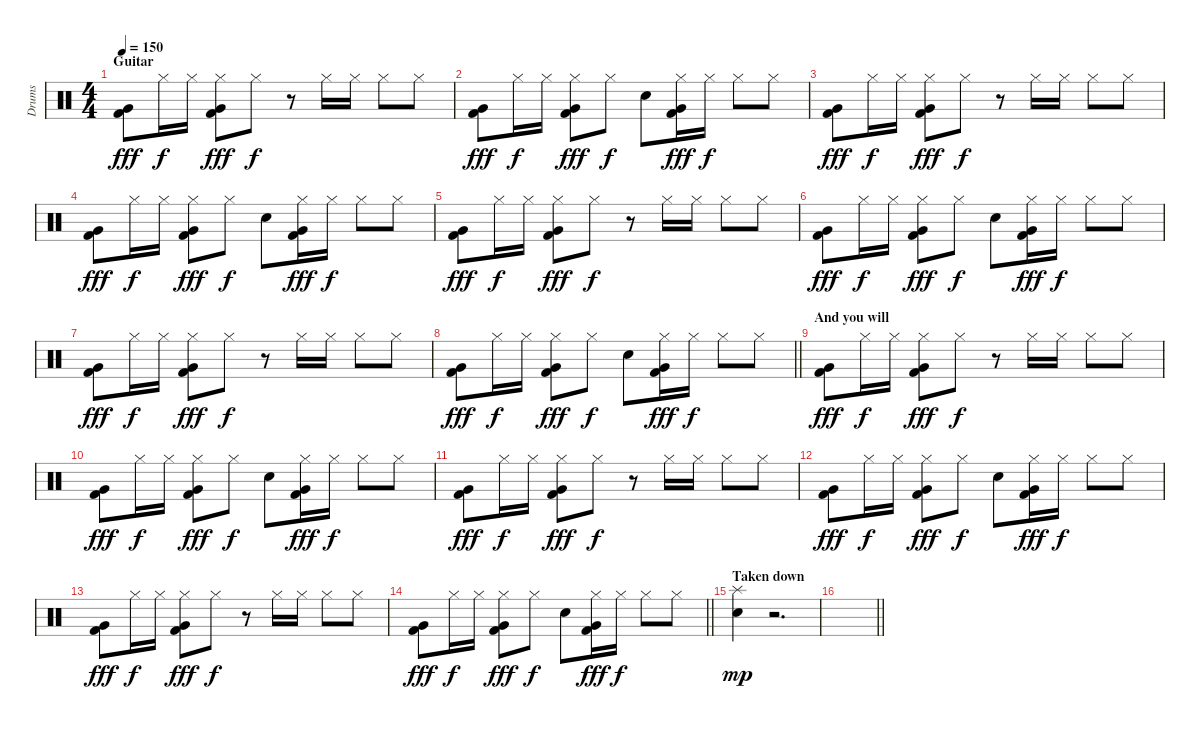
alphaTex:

\track ("Drums" "Drums") {instrument percussion}
\staff {score}
\articulation defaults
\ts (4 4)
\section ("" "Guitar")
\tempo 150
\clef neutral
\ks c
("Very Low Tom (hit)" "Kick (hit) 2").8{dy fff} "Hi-Hat (closed)".16{dy f} "Hi-Hat (closed)".16 ("Hi-Hat (closed)" "Very Low Tom (hit)" "Kick (hit) 2").8{dy fff} "Hi-Hat (closed)".8{dy f} r.8 "Hi-Hat (closed)".16 "Hi-Hat (closed)".16 "Hi-Hat (closed)".8 "Hi-Hat (closed)".8 |
("Very Low Tom (hit)" "Kick (hit) 2").8{dy fff} "Hi-Hat (closed)".16{dy f} "Hi-Hat (closed)".16 ("Hi-Hat (closed)" "Very Low Tom (hit)" "Kick (hit) 2").8{dy fff} "Hi-Hat (closed)".8{dy f} "Electric Snare (hit)".8 ("Hi-Hat (closed)" "Very Low Tom (hit)" "Kick (hit) 2").16{dy fff} "Hi-Hat (closed)".16{dy f} "Hi-Hat (closed)".8 "Hi-Hat (closed)".8 |
("Very Low Tom (hit)" "Kick (hit) 2").8{dy fff} "Hi-Hat (closed)".16{dy f} "Hi-Hat (closed)".16 ("Hi-Hat (closed)" "Very Low Tom (hit)" "Kick (hit) 2").8{dy fff} "Hi-Hat (closed)".8{dy f} r.8 "Hi-Hat (closed)".16 "Hi-Hat (closed)".16 "Hi-Hat (closed)".8 "Hi-Hat (closed)".8 |
("Very Low Tom (hit)" "Kick (hit) 2").8{dy fff} "Hi-Hat (closed)".16{dy f} "Hi-Hat (closed)".16 ("Hi-Hat (closed)" "Very Low Tom (hit)" "Kick (hit) 2").8{dy fff} "Hi-Hat (closed)".8{dy f} "Electric Snare (hit)".8 ("Hi-Hat (closed)" "Very Low Tom (hit)" "Kick (hit) 2").16{dy fff} "Hi-Hat (closed)".16{dy f} "Hi-Hat (closed)".8 "Hi-Hat (closed)".8 |
("Very Low Tom (hit)" "Kick (hit) 2").8{dy fff} "Hi-Hat (closed)".16{dy f} "Hi-Hat (closed)".16 ("Hi-Hat (closed)" "Very Low Tom (hit)" "Kick (hit) 2").8{dy fff} "Hi-Hat (closed)".8{dy f} r.8 "Hi-Hat (closed)".16 "Hi-Hat (closed)".16 "Hi-Hat (closed)".8 "Hi-Hat (closed)".8 |
("Very Low Tom (hit)" "Kick (hit) 2").8{dy fff} "Hi-Hat (closed)".16{dy f} "Hi-Hat (closed)".16 ("Hi-Hat (closed)" "Very Low Tom (hit)" "Kick (hit) 2").8{dy fff} "Hi-Hat (closed)".8{dy f} "Electric Snare (hit)".8 ("Hi-Hat (closed)" "Very Low Tom (hit)" "Kick (hit) 2").16{dy fff} "Hi-Hat (closed)".16{dy f} "Hi-Hat (closed)".8 "Hi-Hat (closed)".8 |
("Very Low Tom (hit)" "Kick (hit) 2").8{dy fff} "Hi-Hat (closed)".16{dy f} "Hi-Hat (closed)".16 ("Hi-Hat (closed)" "Very Low Tom (hit)" "Kick (hit) 2").8{dy fff} "Hi-Hat (closed)".8{dy f} r.8 "Hi-Hat (closed)".16 "Hi-Hat (closed)".16 "Hi-Hat (closed)".8 "Hi-Hat (closed)".8 |
\barLineRight lightlight
("Very Low Tom (hit)" "Kick (hit) 2").8{dy fff} "Hi-Hat (closed)".16{dy f} "Hi-Hat (closed)".16 ("Hi-Hat (closed)" "Very Low Tom (hit)" "Kick (hit) 2").8{dy fff} "Hi-Hat (closed)".8{dy f} "Electric Snare (hit)".8 ("Hi-Hat (closed)" "Very Low Tom (hit)" "Kick (hit) 2").16{dy fff} "Hi-Hat (closed)".16{dy f} "Hi-Hat (closed)".8 "Hi-Hat (closed)".8 |
\section ("" "And you will")
("Very Low Tom (hit)" "Kick (hit) 2").8{dy fff} "Hi-Hat (closed)".16{dy f} "Hi-Hat (closed)".16 ("Hi-Hat (closed)" "Very Low Tom (hit)" "Kick (hit) 2").8{dy fff} "Hi-Hat (closed)".8{dy f} r.8 "Hi-Hat (closed)".16 "Hi-Hat (closed)".16 "Hi-Hat (closed)".8 "Hi-Hat (closed)".8 |
("Very Low Tom (hit)" "Kick (hit) 2").8{dy fff} "Hi-Hat (closed)".16{dy f} "Hi-Hat (closed)".16 ("Hi-Hat (closed)" "Very Low Tom (hit)" "Kick (hit) 2").8{dy fff} "Hi-Hat (closed)".8{dy f} "Electric Snare (hit)".8 ("Hi-Hat (closed)" "Very Low Tom (hit)" "Kick (hit) 2").16{dy fff} "Hi-Hat (closed)".16{dy f} "Hi-Hat (closed)".8 "Hi-Hat (closed)".8 |
("Very Low Tom (hit)" "Kick (hit) 2").8{dy fff} "Hi-Hat (closed)".16{dy f} "Hi-Hat (closed)".16 ("Hi-Hat (closed)" "Very Low Tom (hit)" "Kick (hit) 2").8{dy fff} "Hi-Hat (closed)".8{dy f} r.8 "Hi-Hat (closed)".16 "Hi-Hat (closed)".16 "Hi-Hat (closed)".8 "Hi-Hat (closed)".8 |
("Very Low Tom (hit)" "Kick (hit) 2").8{dy fff} "Hi-Hat (closed)".16{dy f} "Hi-Hat (closed)".16 ("Hi-Hat (closed)" "Very Low Tom (hit)" "Kick (hit) 2").8{dy fff} "Hi-Hat (closed)".8{dy f} "Electric Snare (hit)".8 ("Hi-Hat (closed)" "Very Low Tom (hit)" "Kick (hit) 2").16{dy fff} "Hi-Hat (closed)".16{dy f} "Hi-Hat (closed)".8 "Hi-Hat (closed)".8 |
("Very Low Tom (hit)" "Kick (hit) 2").8{dy fff} "Hi-Hat (closed)".16{dy f} "Hi-Hat (closed)".16 ("Hi-Hat (closed)" "Very Low Tom (hit)" "Kick (hit) 2").8{dy fff} "Hi-Hat (closed)".8{dy f} r.8 "Hi-Hat (closed)".16 "Hi-Hat (closed)".16 "Hi-Hat (closed)".8 "Hi-Hat (closed)".8 |
\barLineRight lightlight
("Very Low Tom (hit)" "Kick (hit) 2").8{dy fff} "Hi-Hat (closed)".16{dy f} "Hi-Hat (closed)".16 ("Hi-Hat (closed)" "Very Low Tom (hit)" "Kick (hit) 2").8{dy fff} "Hi-Hat (closed)".8{dy f} "Electric Snare (hit)".8 ("Hi-Hat (closed)" "Very Low Tom (hit)" "Kick (hit) 2").16{dy fff} "Hi-Hat (closed)".16{dy f} "Hi-Hat (closed)".8 "Hi-Hat (closed)".8 |
\section ("" "Taken down")
("Splash (hit)" "Electric Snare (hit)").4{dy mp} r.2{d} |
\barLineRight lightlight
